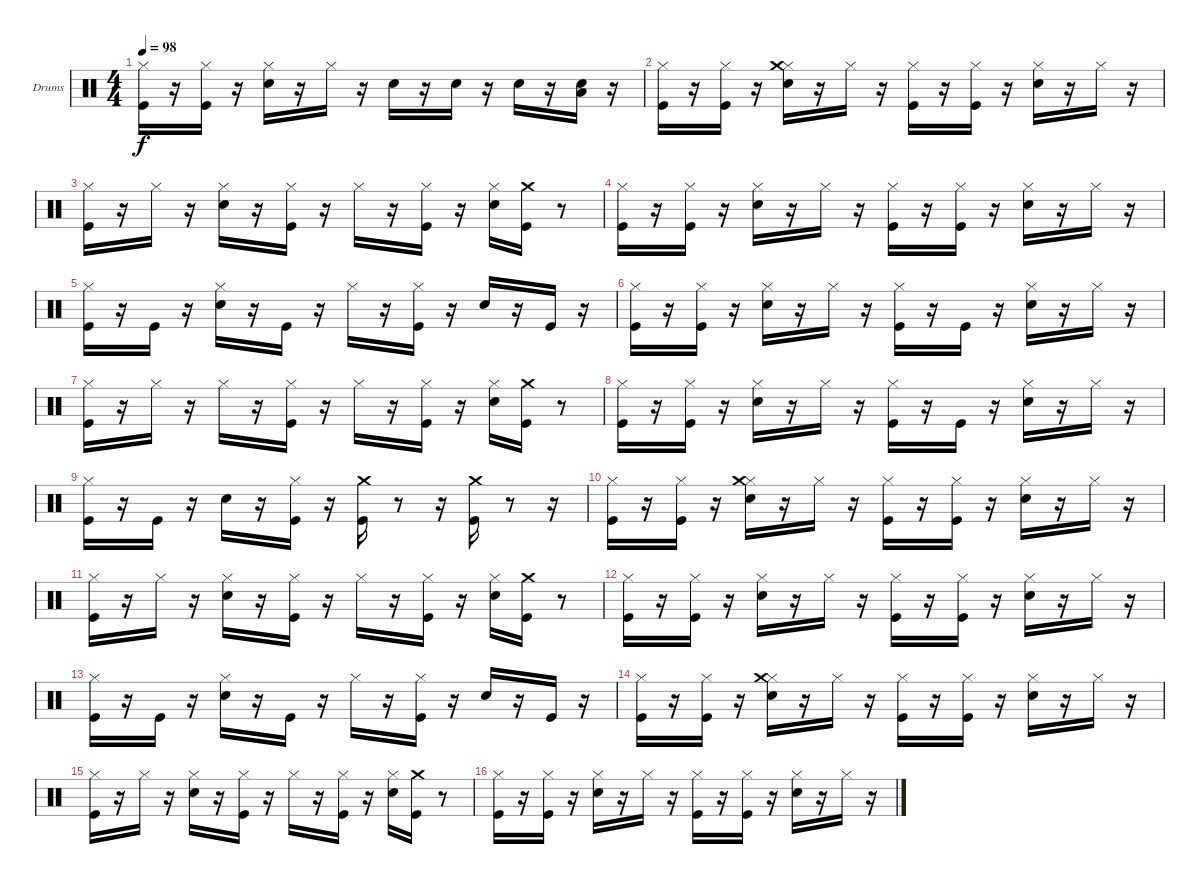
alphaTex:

\bracketExtendMode groupsimilarinstruments
\firstSystemTrackNameOrientation horizontal
\otherSystemsTrackNameOrientation horizontal
\track ("Drumkit" "Drums") {instrument percussion}
\staff {score}
\articulation defaults
\ts (4 4)
\tempo 98
\clef neutral
\ks c
("Kick (hit)" "Hi-Hat (closed)").16{dy f} r.16 ("Kick (hit)" "Hi-Hat (closed)").16 r.16 ("Snare (hit) 2" "Hi-Hat (closed)").16 r.16 "Hi-Hat (closed)".16 r.16 "Snare (hit) 2".16 r.16 "Snare (hit) 2".16 r.16 "Snare (hit) 2".16 r.16 ("Snare (hit) 2" "Low Tom (hit)").16 r.16 |
("Kick (hit)" "Hi-Hat (closed)").16 r.16 ("Kick (hit)" "Hi-Hat (closed)").16 r.16 ("Snare (hit) 2" "Hi-Hat (closed)" "Crash medium (hit)").16 r.16 "Hi-Hat (closed)".16 r.16 ("Kick (hit)" "Hi-Hat (closed)").16 r.16 ("Kick (hit)" "Hi-Hat (closed)").16 r.16 ("Snare (hit) 2" "Hi-Hat (closed)").16 r.16 "Hi-Hat (closed)".16 r.16 |
("Kick (hit)" "Hi-Hat (closed)").16 r.16 "Hi-Hat (closed)".16 r.16 ("Snare (hit) 2" "Hi-Hat (closed)").16 r.16 ("Kick (hit)" "Hi-Hat (closed)").16 r.16 "Hi-Hat (closed)".16 r.16 ("Kick (hit)" "Hi-Hat (closed)").16 r.16 ("Snare (hit) 2" "Hi-Hat (closed)").16 ("Kick (hit)" "Crash medium (hit)").16 r.8 |
("Kick (hit)" "Hi-Hat (closed)").16 r.16 ("Kick (hit)" "Hi-Hat (closed)").16 r.16 ("Snare (hit) 2" "Hi-Hat (closed)").16 r.16 "Hi-Hat (closed)".16 r.16 ("Kick (hit)" "Hi-Hat (closed)").16 r.16 ("Kick (hit)" "Hi-Hat (closed)").16 r.16 ("Snare (hit) 2" "Hi-Hat (closed)").16 r.16 "Hi-Hat (closed)".16 r.16 |
("Kick (hit)" "Hi-Hat (closed)").16 r.16 "Kick (hit)".16 r.16 ("Snare (hit) 2" "Hi-Hat (closed)").16 r.16 "Kick (hit)".16 r.16 "Hi-Hat (closed)".16 r.16 ("Kick (hit)" "Hi-Hat (closed)").16 r.16 "Snare (hit) 2".16 r.16 "Kick (hit)".16 r.16 |
("Kick (hit)" "Hi-Hat (closed)").16 r.16 ("Kick (hit)" "Hi-Hat (closed)").16 r.16 ("Snare (hit) 2" "Hi-Hat (closed)").16 r.16 "Hi-Hat (closed)".16 r.16 ("Kick (hit)" "Hi-Hat (closed)").16 r.16 "Kick (hit)".16 r.16 ("Snare (hit) 2" "Hi-Hat (closed)").16 r.16 "Hi-Hat (closed)".16 r.16 |
("Kick (hit)" "Hi-Hat (closed)").16 r.16 "Hi-Hat (closed)".16 r.16 "Hi-Hat (closed)".16 r.16 ("Kick (hit)" "Hi-Hat (closed)").16 r.16 "Hi-Hat (closed)".16 r.16 ("Kick (hit)" "Hi-Hat (closed)").16 r.16 ("Snare (hit) 2" "Hi-Hat (closed)").16 ("Kick (hit)" "Crash medium (hit)").16 r.8 |
("Kick (hit)" "Hi-Hat (closed)").16 r.16 ("Kick (hit)" "Hi-Hat (closed)").16 r.16 ("Snare (hit) 2" "Hi-Hat (closed)").16 r.16 "Hi-Hat (closed)".16 r.16 ("Kick (hit)" "Hi-Hat (closed)").16 r.16 "Kick (hit)".16 r.16 ("Snare (hit) 2" "Hi-Hat (closed)").16 r.16 "Hi-Hat (closed)".16 r.16 |
("Kick (hit)" "Hi-Hat (closed)").16 r.16 "Kick (hit)".16 r.16 "Snare (hit) 2".16 r.16 ("Kick (hit)" "Hi-Hat (closed)").16 r.16 ("Kick (hit)" "Crash medium (hit)").16 r.8 r.16 ("Kick (hit)" "Crash medium (hit)").16 r.8 r.16 |
("Kick (hit)" "Hi-Hat (closed)").16 r.16 ("Kick (hit)" "Hi-Hat (closed)").16 r.16 ("Snare (hit) 2" "Hi-Hat (closed)" "Crash medium (hit)").16 r.16 "Hi-Hat (closed)".16 r.16 ("Kick (hit)" "Hi-Hat (closed)").16 r.16 ("Kick (hit)" "Hi-Hat (closed)").16 r.16 ("Snare (hit) 2" "Hi-Hat (closed)").16 r.16 "Hi-Hat (closed)".16 r.16 |
("Kick (hit)" "Hi-Hat (closed)").16 r.16 "Hi-Hat (closed)".16 r.16 ("Snare (hit) 2" "Hi-Hat (closed)").16 r.16 ("Kick (hit)" "Hi-Hat (closed)").16 r.16 "Hi-Hat (closed)".16 r.16 ("Kick (hit)" "Hi-Hat (closed)").16 r.16 ("Snare (hit) 2" "Hi-Hat (closed)").16 ("Kick (hit)" "Crash medium (hit)").16 r.8 |
("Kick (hit)" "Hi-Hat (closed)").16 r.16 ("Kick (hit)" "Hi-Hat (closed)").16 r.16 ("Snare (hit) 2" "Hi-Hat (closed)").16 r.16 "Hi-Hat (closed)".16 r.16 ("Kick (hit)" "Hi-Hat (closed)").16 r.16 ("Kick (hit)" "Hi-Hat (closed)").16 r.16 ("Snare (hit) 2" "Hi-Hat (closed)").16 r.16 "Hi-Hat (closed)".16 r.16 |
("Kick (hit)" "Hi-Hat (closed)").16 r.16 "Kick (hit)".16 r.16 ("Snare (hit) 2" "Hi-Hat (closed)").16 r.16 "Kick (hit)".16 r.16 "Hi-Hat (closed)".16 r.16 ("Kick (hit)" "Hi-Hat (closed)").16 r.16 "Snare (hit) 2".16 r.16 "Kick (hit)".16 r.16 |
("Kick (hit)" "Hi-Hat (closed)").16 r.16 ("Kick (hit)" "Hi-Hat (closed)").16 r.16 ("Snare (hit) 2" "Hi-Hat (closed)" "Crash medium (hit)").16 r.16 "Hi-Hat (closed)".16 r.16 ("Kick (hit)" "Hi-Hat (closed)").16 r.16 ("Kick (hit)" "Hi-Hat (closed)").16 r.16 ("Snare (hit) 2" "Hi-Hat (closed)").16 r.16 "Hi-Hat (closed)".16 r.16 |
("Kick (hit)" "Hi-Hat (closed)").16 r.16 "Hi-Hat (closed)".16 r.16 ("Snare (hit) 2" "Hi-Hat (closed)").16 r.16 ("Kick (hit)" "Hi-Hat (closed)").16 r.16 "Hi-Hat (closed)".16 r.16 ("Kick (hit)" "Hi-Hat (closed)").16 r.16 ("Snare (hit) 2" "Hi-Hat (closed)").16 ("Kick (hit)" "Crash medium (hit)").16 r.8 |
("Kick (hit)" "Hi-Hat (closed)").16 r.16 ("Kick (hit)" "Hi-Hat (closed)").16 r.16 ("Snare (hit) 2" "Hi-Hat (closed)").16 r.16 "Hi-Hat (closed)".16 r.16 ("Kick (hit)" "Hi-Hat (closed)").16 r.16 ("Kick (hit)" "Hi-Hat (closed)").16 r.16 ("Snare (hit) 2" "Hi-Hat (closed)").16 r.16 "Hi-Hat (closed)".16 r.16
